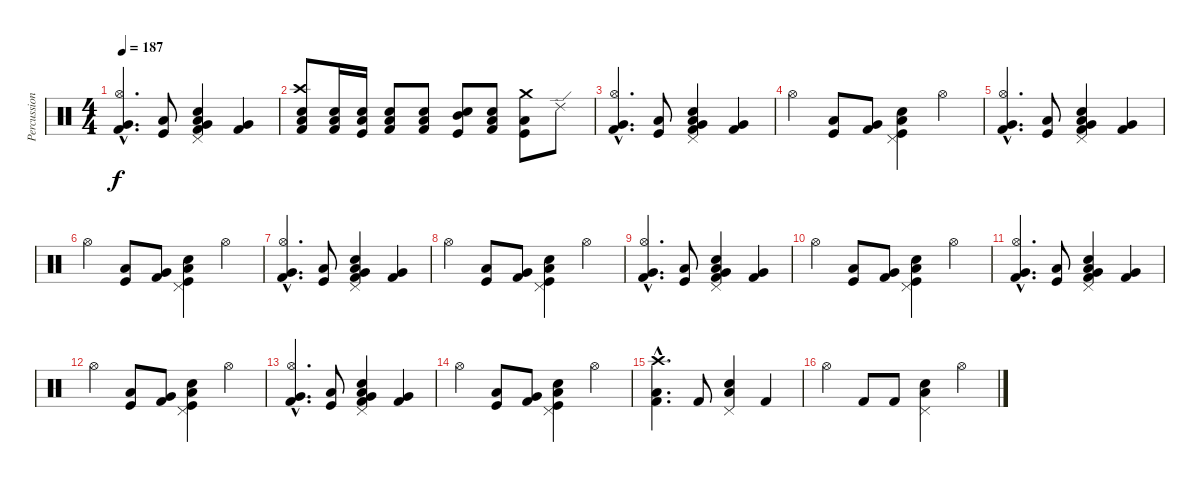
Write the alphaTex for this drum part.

\track ("Percussions" "Percussion") {instrument percussion}
\staff {score}
\articulation defaults
\ts (4 4)
\tempo 187
\clef neutral
\ks c
("Very Low Tom (hit)"{hac} "Hi-Hat (open)"{hac} "Kick (hit) 2"{hac}).4{d dy f} ("Low Tom (hit)" "Kick (hit)").8 ("Pedal Hi-Hat (hit)" "Snare (hit) 2" "Low Floor Tom (hit)" "Kick (hit) 2" "Very Low Tom (hit)").4 ("Very Low Tom (hit)" "Kick (hit) 2").4 |
("Crash high (hit)" "Low Tom (hit)" "Electric Snare (hit)" "Kick (hit) 2").8 ("Low Tom (hit)" "Electric Snare (hit)" "Kick (hit) 2").16 ("Low Tom (hit)" "Electric Snare (hit)" "Kick (hit)").16 ("Low Floor Tom (hit)" "Electric Snare (hit)" "Kick (hit) 2").8 ("Low Tom (hit)" "Electric Snare (hit)" "Kick (hit) 2").8 ("Electric Snare (hit)" "Mid Tom (hit)" "Kick (hit)").8 ("Electric Snare (hit)" "Low Tom (hit)" "Kick (hit) 2").8 ("Low Tom (hit)" "Kick (hit)" "Crash medium (hit)").8 "Ride (edge) 2".8 |
("Very Low Tom (hit)"{hac} "Hi-Hat (open)"{hac} "Kick (hit) 2"{hac}).4{d} ("Low Tom (hit)" "Kick (hit)").8 ("Pedal Hi-Hat (hit)" "Snare (hit) 2" "Low Floor Tom (hit)" "Kick (hit) 2" "Very Low Tom (hit)").4 ("Very Low Tom (hit)" "Kick (hit) 2").4 |
"Hi-Hat (open)".4 ("Low Tom (hit)" "Kick (hit)").8 ("Very Low Tom (hit)" "Kick (hit) 2").8 ("Low Tom (hit)" "Snare (hit) 2" "Pedal Hi-Hat (hit)" "Kick (hit)").4 "Hi-Hat (open)".4 |
("Very Low Tom (hit)"{hac} "Hi-Hat (open)"{hac} "Kick (hit) 2"{hac}).4{d} ("Low Tom (hit)" "Kick (hit)").8 ("Pedal Hi-Hat (hit)" "Snare (hit) 2" "Low Floor Tom (hit)" "Kick (hit) 2" "Very Low Tom (hit)").4 ("Very Low Tom (hit)" "Kick (hit) 2").4 |
"Hi-Hat (open)".4 ("Low Tom (hit)" "Kick (hit)").8 ("Very Low Tom (hit)" "Kick (hit) 2").8 ("Low Tom (hit)" "Snare (hit) 2" "Pedal Hi-Hat (hit)" "Kick (hit)").4 "Hi-Hat (open)".4 |
("Very Low Tom (hit)"{hac} "Hi-Hat (open)"{hac} "Kick (hit) 2"{hac}).4{d} ("Low Tom (hit)" "Kick (hit)").8 ("Pedal Hi-Hat (hit)" "Snare (hit) 2" "Low Floor Tom (hit)" "Kick (hit) 2" "Very Low Tom (hit)").4 ("Very Low Tom (hit)" "Kick (hit) 2").4 |
"Hi-Hat (open)".4 ("Low Tom (hit)" "Kick (hit)").8 ("Very Low Tom (hit)" "Kick (hit) 2").8 ("Low Tom (hit)" "Snare (hit) 2" "Pedal Hi-Hat (hit)" "Kick (hit)").4 "Hi-Hat (open)".4 |
("Very Low Tom (hit)"{hac} "Hi-Hat (open)"{hac} "Kick (hit) 2"{hac}).4{d} ("Low Tom (hit)" "Kick (hit)").8 ("Pedal Hi-Hat (hit)" "Snare (hit) 2" "Low Floor Tom (hit)" "Kick (hit) 2" "Very Low Tom (hit)").4 ("Very Low Tom (hit)" "Kick (hit) 2").4 |
"Hi-Hat (open)".4 ("Low Tom (hit)" "Kick (hit)").8 ("Very Low Tom (hit)" "Kick (hit) 2").8 ("Low Tom (hit)" "Snare (hit) 2" "Pedal Hi-Hat (hit)" "Kick (hit)").4 "Hi-Hat (open)".4 |
("Very Low Tom (hit)"{hac} "Hi-Hat (open)"{hac} "Kick (hit) 2"{hac}).4{d} ("Low Tom (hit)" "Kick (hit)").8 ("Pedal Hi-Hat (hit)" "Snare (hit) 2" "Low Floor Tom (hit)" "Kick (hit) 2" "Very Low Tom (hit)").4 ("Very Low Tom (hit)" "Kick (hit) 2").4 |
"Hi-Hat (open)".4 ("Low Tom (hit)" "Kick (hit)").8 ("Very Low Tom (hit)" "Kick (hit) 2").8 ("Low Tom (hit)" "Snare (hit) 2" "Pedal Hi-Hat (hit)" "Kick (hit)").4 "Hi-Hat (open)".4 |
("Very Low Tom (hit)"{hac} "Hi-Hat (open)"{hac} "Kick (hit) 2"{hac}).4{d} ("Low Tom (hit)" "Kick (hit)").8 ("Pedal Hi-Hat (hit)" "Snare (hit) 2" "Low Floor Tom (hit)" "Kick (hit) 2" "Very Low Tom (hit)").4 ("Very Low Tom (hit)" "Kick (hit) 2").4 |
"Hi-Hat (open)".4 ("Low Tom (hit)" "Kick (hit)").8 ("Very Low Tom (hit)" "Kick (hit) 2").8 ("Low Tom (hit)" "Snare (hit) 2" "Pedal Hi-Hat (hit)" "Kick (hit)").4 "Hi-Hat (open)".4 |
("Low Tom (hit)"{hac} "Crash high (hit)"{hac} "Kick (hit) 2"{hac}).4{d} "Kick (hit) 2".8 ("Pedal Hi-Hat (hit)" "Snare (hit) 2" "Low Floor Tom (hit)").4 "Kick (hit) 2".4 |
"Hi-Hat (open)".4 "Kick (hit) 2".8 "Kick (hit) 2".8 ("Low Tom (hit)" "Snare (hit) 2" "Pedal Hi-Hat (hit)").4 "Hi-Hat (open)".4
